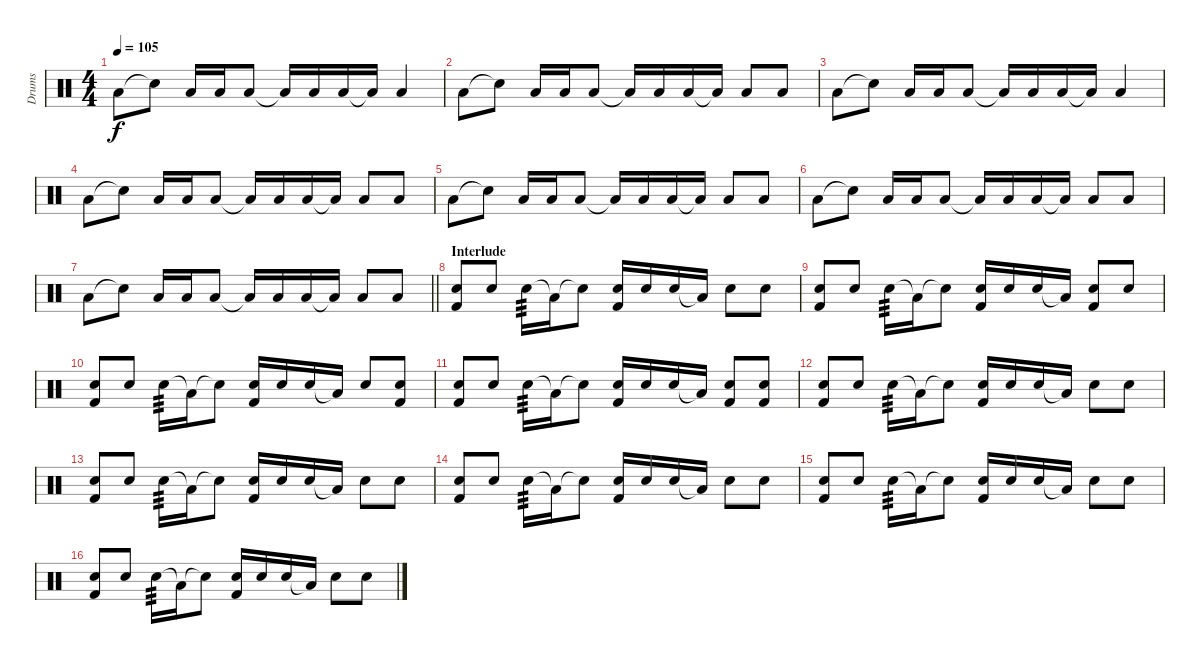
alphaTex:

\track ("Drums" "Drums") {instrument percussion}
\staff {score}
\articulation defaults
\ts (4 4)
\tempo 105
\clef neutral
\ks c "Low Floor Tom (hit)".8{dy f} "Snare (hit)"{t}.8 "Low Floor Tom (hit)".16 "Low Floor Tom (hit)".16 "Low Floor Tom (hit)".8 "Low Floor Tom (hit)"{t}.16 "Low Floor Tom (hit)".16 "Low Floor Tom (hit)".16 "Low Floor Tom (hit)"{t}.16 "Low Floor Tom (hit)".4
|
"Low Floor Tom (hit)".8 "Snare (hit)"{t}.8 "Low Floor Tom (hit)".16 "Low Floor Tom (hit)".16 "Low Floor Tom (hit)".8 "Low Floor Tom (hit)"{t}.16 "Low Floor Tom (hit)".16 "Low Floor Tom (hit)".16 "Low Floor Tom (hit)"{t}.16 "Low Floor Tom (hit)".8 "Low Floor Tom (hit)".8 |
"Low Floor Tom (hit)".8 "Snare (hit)"{t}.8 "Low Floor Tom (hit)".16 "Low Floor Tom (hit)".16 "Low Floor Tom (hit)".8 "Low Floor Tom (hit)"{t}.16 "Low Floor Tom (hit)".16 "Low Floor Tom (hit)".16 "Low Floor Tom (hit)"{t}.16 "Low Floor Tom (hit)".4 |
"Low Floor Tom (hit)".8 "Snare (hit)"{t}.8 "Low Floor Tom (hit)".16 "Low Floor Tom (hit)".16 "Low Floor Tom (hit)".8 "Low Floor Tom (hit)"{t}.16 "Low Floor Tom (hit)".16 "Low Floor Tom (hit)".16 "Low Floor Tom (hit)"{t}.16 "Low Floor Tom (hit)".8 "Low Floor Tom (hit)".8 |
"Low Floor Tom (hit)".8 "Snare (hit)"{t}.8 "Low Floor Tom (hit)".16 "Low Floor Tom (hit)".16 "Low Floor Tom (hit)".8 "Low Floor Tom (hit)"{t}.16 "Low Floor Tom (hit)".16 "Low Floor Tom (hit)".16 "Low Floor Tom (hit)"{t}.16 "Low Floor Tom (hit)".8 "Low Floor Tom (hit)".8 |
"Low Floor Tom (hit)".8 "Snare (hit)"{t}.8 "Low Floor Tom (hit)".16 "Low Floor Tom (hit)".16 "Low Floor Tom (hit)".8 "Low Floor Tom (hit)"{t}.16 "Low Floor Tom (hit)".16 "Low Floor Tom (hit)".16 "Low Floor Tom (hit)"{t}.16 "Low Floor Tom (hit)".8 "Low Floor Tom (hit)".8 |
\barLineRight lightlight "Low Floor Tom (hit)".8 "Snare (hit)"{t}.8 "Low Floor Tom (hit)".16 "Low Floor Tom (hit)".16 "Low Floor Tom (hit)".8 "Low Floor Tom (hit)"{t}.16 "Low Floor Tom (hit)".16 "Low Floor Tom (hit)".16 "Low Floor Tom (hit)"{t}.16 "Low Floor Tom (hit)".8 "Low Floor Tom (hit)".8
|
\section ("" "Interlude")
("Electric Snare (hit)" "Kick (hit) 2").8{volume 7} "Electric Snare (hit)".8 "Electric Snare (hit)".16{tp 3} "Low Floor Tom (hit)"{t}.16 "Electric Snare (hit)"{t}.8 ("Electric Snare (hit)" "Kick (hit) 2").16 "Electric Snare (hit)".16 "Electric Snare (hit)".16 "Low Floor Tom (hit)"{t}.16 "Electric Snare (hit)".8 "Electric Snare (hit)".8 |
("Electric Snare (hit)" "Kick (hit) 2").8 "Electric Snare (hit)".8 "Electric Snare (hit)".16{tp 3} "Low Floor Tom (hit)"{t}.16 "Electric Snare (hit)"{t}.8 ("Electric Snare (hit)" "Kick (hit) 2").16 "Electric Snare (hit)".16 "Electric Snare (hit)".16 "Low Floor Tom (hit)"{t}.16 ("Electric Snare (hit)" "Kick (hit) 2").8 "Electric Snare (hit)".8 |
("Electric Snare (hit)" "Kick (hit) 2").8{volume 7} "Electric Snare (hit)".8 "Electric Snare (hit)".16{tp 3} "Low Floor Tom (hit)"{t}.16 "Electric Snare (hit)"{t}.8 ("Electric Snare (hit)" "Kick (hit) 2").16 "Electric Snare (hit)".16 "Electric Snare (hit)".16 "Low Floor Tom (hit)"{t}.16 "Electric Snare (hit)".8 ("Electric Snare (hit)" "Kick (hit) 2").8 |
("Electric Snare (hit)" "Kick (hit) 2").8 "Electric Snare (hit)".8 "Electric Snare (hit)".16{tp 3} "Low Floor Tom (hit)"{t}.16 "Electric Snare (hit)"{t}.8 ("Electric Snare (hit)" "Kick (hit) 2").16 "Electric Snare (hit)".16 "Electric Snare (hit)".16 "Low Floor Tom (hit)"{t}.16 ("Electric Snare (hit)" "Kick (hit) 2").8 ("Electric Snare (hit)" "Kick (hit) 2").8 |
("Electric Snare (hit)" "Kick (hit) 2").8{volume 7} "Electric Snare (hit)".8 "Electric Snare (hit)".16{tp 3} "Low Floor Tom (hit)"{t}.16 "Electric Snare (hit)"{t}.8 ("Electric Snare (hit)" "Kick (hit) 2").16 "Electric Snare (hit)".16 "Electric Snare (hit)".16 "Low Floor Tom (hit)"{t}.16 "Electric Snare (hit)".8 "Electric Snare (hit)".8 |
("Electric Snare (hit)" "Kick (hit) 2").8 "Electric Snare (hit)".8 "Electric Snare (hit)".16{tp 3} "Low Floor Tom (hit)"{t}.16 "Electric Snare (hit)"{t}.8 ("Electric Snare (hit)" "Kick (hit) 2").16 "Electric Snare (hit)".16 "Electric Snare (hit)".16 "Low Floor Tom (hit)"{t}.16 "Electric Snare (hit)".8 "Electric Snare (hit)".8 |
("Electric Snare (hit)" "Kick (hit) 2").8{volume 7} "Electric Snare (hit)".8 "Electric Snare (hit)".16{tp 3} "Low Floor Tom (hit)"{t}.16 "Electric Snare (hit)"{t}.8 ("Electric Snare (hit)" "Kick (hit) 2").16 "Electric Snare (hit)".16 "Electric Snare (hit)".16 "Low Floor Tom (hit)"{t}.16 "Electric Snare (hit)".8 "Electric Snare (hit)".8 |
("Electric Snare (hit)" "Kick (hit) 2").8{volume 7} "Electric Snare (hit)".8 "Electric Snare (hit)".16{tp 3} "Low Floor Tom (hit)"{t}.16 "Electric Snare (hit)"{t}.8 ("Electric Snare (hit)" "Kick (hit) 2").16 "Electric Snare (hit)".16 "Electric Snare (hit)".16 "Low Floor Tom (hit)"{t}.16 "Electric Snare (hit)".8 "Electric Snare (hit)".8 |
("Electric Snare (hit)" "Kick (hit) 2").8 "Electric Snare (hit)".8 "Electric Snare (hit)".16{tp 3} "Low Floor Tom (hit)"{t}.16 "Electric Snare (hit)"{t}.8 ("Electric Snare (hit)" "Kick (hit) 2").16 "Electric Snare (hit)".16 "Electric Snare (hit)".16 "Low Floor Tom (hit)"{t}.16 "Electric Snare (hit)".8 "Electric Snare (hit)".8
